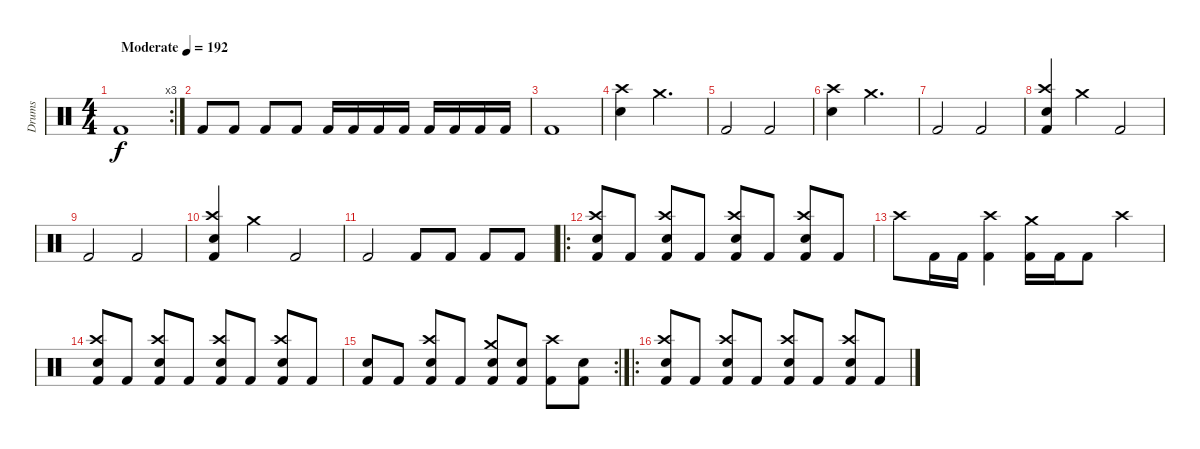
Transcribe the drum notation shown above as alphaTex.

\track ("Drums" "Drums") {instrument percussion}
\staff {score}
\articulation defaults
\rc 3
\ts (4 4)
\tempo (192 "Moderate")
\clef neutral
\ks c "Kick (hit) 2".1{dy f}
|
"Kick (hit) 2".8 "Kick (hit) 2".8 "Kick (hit) 2".8 "Kick (hit) 2".8 "Kick (hit) 2".16 "Kick (hit) 2".16 "Kick (hit) 2".16 "Kick (hit) 2".16 "Kick (hit) 2".16 "Kick (hit) 2".16 "Kick (hit) 2".16 "Kick (hit) 2".16 |
"Kick (hit) 2".1 |
("Crash high (hit)" "Snare (hit) 2").4 "Crash medium (hit)".2{d} |
"Kick (hit) 2".2 "Kick (hit) 2".2 |
("Crash high (hit)" "Snare (hit) 2").4 "Crash medium (hit)".2{d} |
"Kick (hit) 2".2 "Kick (hit) 2".2 |
("Crash high (hit)" "Snare (hit) 2" "Kick (hit) 2").4 "Crash medium (hit)".4 "Kick (hit) 2".2 |
"Kick (hit) 2".2 "Kick (hit) 2".2 |
("Crash high (hit)" "Snare (hit) 2" "Kick (hit) 2").4 "Crash medium (hit)".4 "Kick (hit) 2".2 |
"Kick (hit) 2".2 "Kick (hit) 2".8 "Kick (hit) 2".8 "Kick (hit) 2".8 "Kick (hit) 2".8 |
\ro
("Crash high (hit)" "Snare (hit) 2" "Kick (hit) 2").8 "Kick (hit) 2".8 ("Crash high (hit)" "Snare (hit) 2" "Kick (hit) 2").8 "Kick (hit) 2".8 ("Crash high (hit)" "Snare (hit) 2" "Kick (hit) 2").8 "Kick (hit) 2".8 ("Crash high (hit)" "Snare (hit) 2" "Kick (hit) 2").8 "Kick (hit) 2".8 |
"Crash high (hit)".8 "Kick (hit) 2".16 "Kick (hit) 2".16 ("Crash high (hit)" "Kick (hit) 2").4 ("Crash medium (hit)" "Kick (hit) 2").16 "Kick (hit) 2".16 "Kick (hit) 2".8 "Crash high (hit)".4 |
("Crash high (hit)" "Snare (hit) 2" "Kick (hit) 2").8 "Kick (hit) 2".8 ("Crash high (hit)" "Snare (hit) 2" "Kick (hit) 2").8 "Kick (hit) 2".8 ("Crash high (hit)" "Snare (hit) 2" "Kick (hit) 2").8 "Kick (hit) 2".8 ("Crash high (hit)" "Snare (hit) 2" "Kick (hit) 2").8 "Kick (hit) 2".8 |
\rc 2
("Snare (hit) 2" "Kick (hit) 2").8 "Kick (hit) 2".8 ("Crash high (hit)" "Snare (hit) 2" "Kick (hit) 2").8 "Kick (hit) 2".8 ("Electric Snare (hit)" "Crash medium (hit)" "Kick (hit) 2").8 ("Electric Snare (hit)" "Kick (hit) 2").8 ("Crash high (hit)" "Kick (hit) 2").8 ("Electric Snare (hit)" "Kick (hit) 2").8 |
\ro
("Crash high (hit)" "Snare (hit) 2" "Kick (hit) 2").8 "Kick (hit) 2".8 ("Crash high (hit)" "Snare (hit) 2" "Kick (hit) 2").8 "Kick (hit) 2".8 ("Crash high (hit)" "Snare (hit) 2" "Kick (hit) 2").8 "Kick (hit) 2".8 ("Crash high (hit)" "Snare (hit) 2" "Kick (hit) 2").8 "Kick (hit) 2".8
